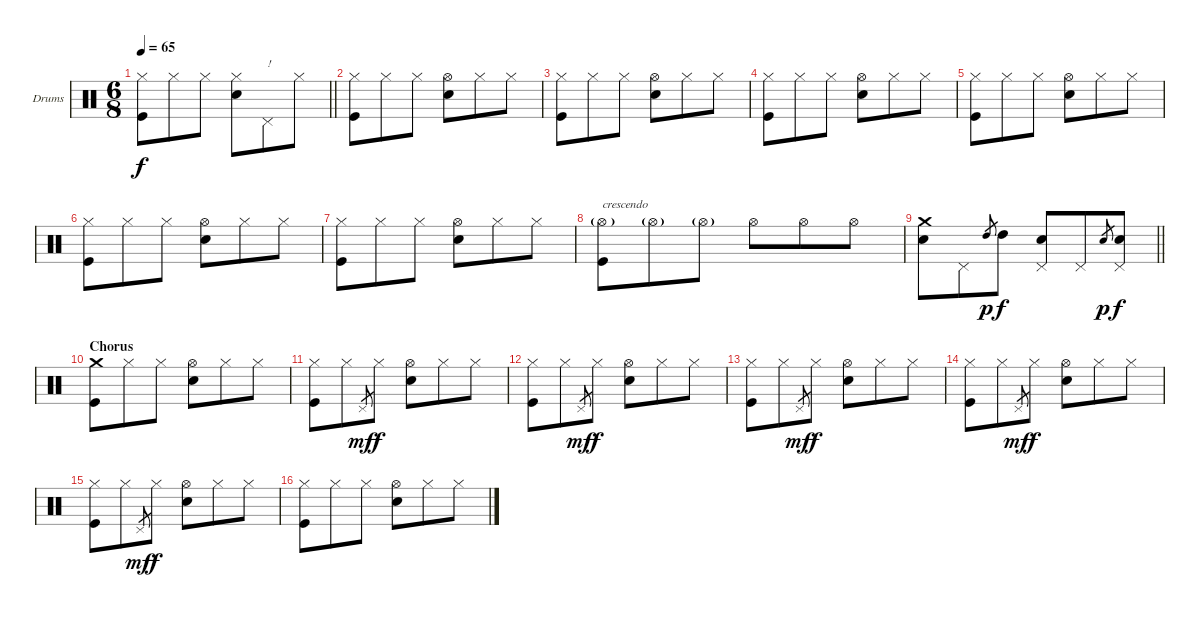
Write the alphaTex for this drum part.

\bracketExtendMode groupsimilarinstruments
\firstSystemTrackNameOrientation horizontal
\otherSystemsTrackNameOrientation horizontal
\track ("Drumkit" "Drums") {instrument percussion}
\staff {score}
\articulation defaults
\ts (6 8)
\tempo 65
\clef neutral
\barLineRight lightlight
\ks c
("Hi-Hat (closed)" "Kick (hit)").8{dy f} "Hi-Hat (closed)".8 "Hi-Hat (closed)".8 ("Hi-Hat (closed)" "Snare (hit) 2").8 "Pedal Hi-Hat (hit)".8{txt "!"} "Hi-Hat (closed)".8 |
\section ("" "")
("Hi-Hat (closed)" "Kick (hit)").8 "Hi-Hat (closed)".8 "Hi-Hat (closed)".8 ("Hi-Hat (open)" "Snare (hit) 2").8 "Hi-Hat (closed)".8 "Hi-Hat (closed)".8 |
("Hi-Hat (closed)" "Kick (hit)").8 "Hi-Hat (closed)".8 "Hi-Hat (closed)".8 ("Hi-Hat (open)" "Snare (hit) 2").8 "Hi-Hat (closed)".8 "Hi-Hat (closed)".8 |
("Hi-Hat (closed)" "Kick (hit)").8 "Hi-Hat (closed)".8 "Hi-Hat (closed)".8 ("Hi-Hat (open)" "Snare (hit) 2").8 "Hi-Hat (closed)".8 "Hi-Hat (closed)".8 |
("Hi-Hat (closed)" "Kick (hit)").8 "Hi-Hat (closed)".8 "Hi-Hat (closed)".8 ("Hi-Hat (open)" "Snare (hit) 2").8 "Hi-Hat (closed)".8 "Hi-Hat (closed)".8 |
("Hi-Hat (closed)" "Kick (hit)").8 "Hi-Hat (closed)".8 "Hi-Hat (closed)".8 ("Hi-Hat (open)" "Snare (hit) 2").8 "Hi-Hat (closed)".8 "Hi-Hat (closed)".8 |
("Hi-Hat (closed)" "Kick (hit)").8 "Hi-Hat (closed)".8 "Hi-Hat (closed)".8 ("Hi-Hat (open)" "Snare (hit) 2").8 "Hi-Hat (closed)".8 "Hi-Hat (closed)".8 |
("Hi-Hat (open)"{g} "Kick (hit)").8{txt "crescendo"} "Hi-Hat (open)"{g}.8 "Hi-Hat (open)"{g}.8 "Hi-Hat (open)".8 "Hi-Hat (open)".8 "Hi-Hat (open)".8 |
\barLineRight lightlight
("Crash medium (hit)" "Snare (hit) 2").8 "Pedal Hi-Hat (hit)".8 "High Tom (hit)".8{gr dy p} "High Tom (hit)".8{dy f} ("Snare (hit) 2" "Pedal Hi-Hat (hit)").8 "Pedal Hi-Hat (hit)".8 "Snare (hit) 2".8{gr dy p} ("Snare (hit) 2" "Pedal Hi-Hat (hit)").8{dy f} |
\section ("" "Chorus")
("Crash medium (hit)" "Kick (hit)").8 "Hi-Hat (closed)".8 "Hi-Hat (closed)".8 ("Hi-Hat (open)" "Snare (hit) 2").8 "Hi-Hat (closed)".8 "Hi-Hat (closed)".8 |
("Hi-Hat (closed)" "Kick (hit)").8 "Hi-Hat (closed)".8 "Pedal Hi-Hat (hit)".8{gr dy mf} "Hi-Hat (closed)".8{dy f} ("Hi-Hat (open)" "Snare (hit) 2").8 "Hi-Hat (closed)".8 "Hi-Hat (closed)".8 |
("Hi-Hat (closed)" "Kick (hit)").8 "Hi-Hat (closed)".8 "Pedal Hi-Hat (hit)".8{gr dy mf} "Hi-Hat (closed)".8{dy f} ("Hi-Hat (open)" "Snare (hit) 2").8 "Hi-Hat (closed)".8 "Hi-Hat (closed)".8 |
("Hi-Hat (closed)" "Kick (hit)").8 "Hi-Hat (closed)".8 "Pedal Hi-Hat (hit)".8{gr dy mf} "Hi-Hat (closed)".8{dy f} ("Hi-Hat (open)" "Snare (hit) 2").8 "Hi-Hat (closed)".8 "Hi-Hat (closed)".8 |
("Hi-Hat (closed)" "Kick (hit)").8 "Hi-Hat (closed)".8 "Pedal Hi-Hat (hit)".8{gr dy mf} "Hi-Hat (closed)".8{dy f} ("Hi-Hat (open)" "Snare (hit) 2").8 "Hi-Hat (closed)".8 "Hi-Hat (closed)".8 |
("Hi-Hat (closed)" "Kick (hit)").8 "Hi-Hat (closed)".8 "Pedal Hi-Hat (hit)".8{gr dy mf} "Hi-Hat (closed)".8{dy f} ("Hi-Hat (open)" "Snare (hit) 2").8 "Hi-Hat (closed)".8 "Hi-Hat (closed)".8 |
("Hi-Hat (closed)" "Kick (hit)").8 "Hi-Hat (closed)".8 "Hi-Hat (closed)".8 ("Hi-Hat (open)" "Snare (hit) 2").8 "Hi-Hat (closed)".8 "Hi-Hat (closed)".8
